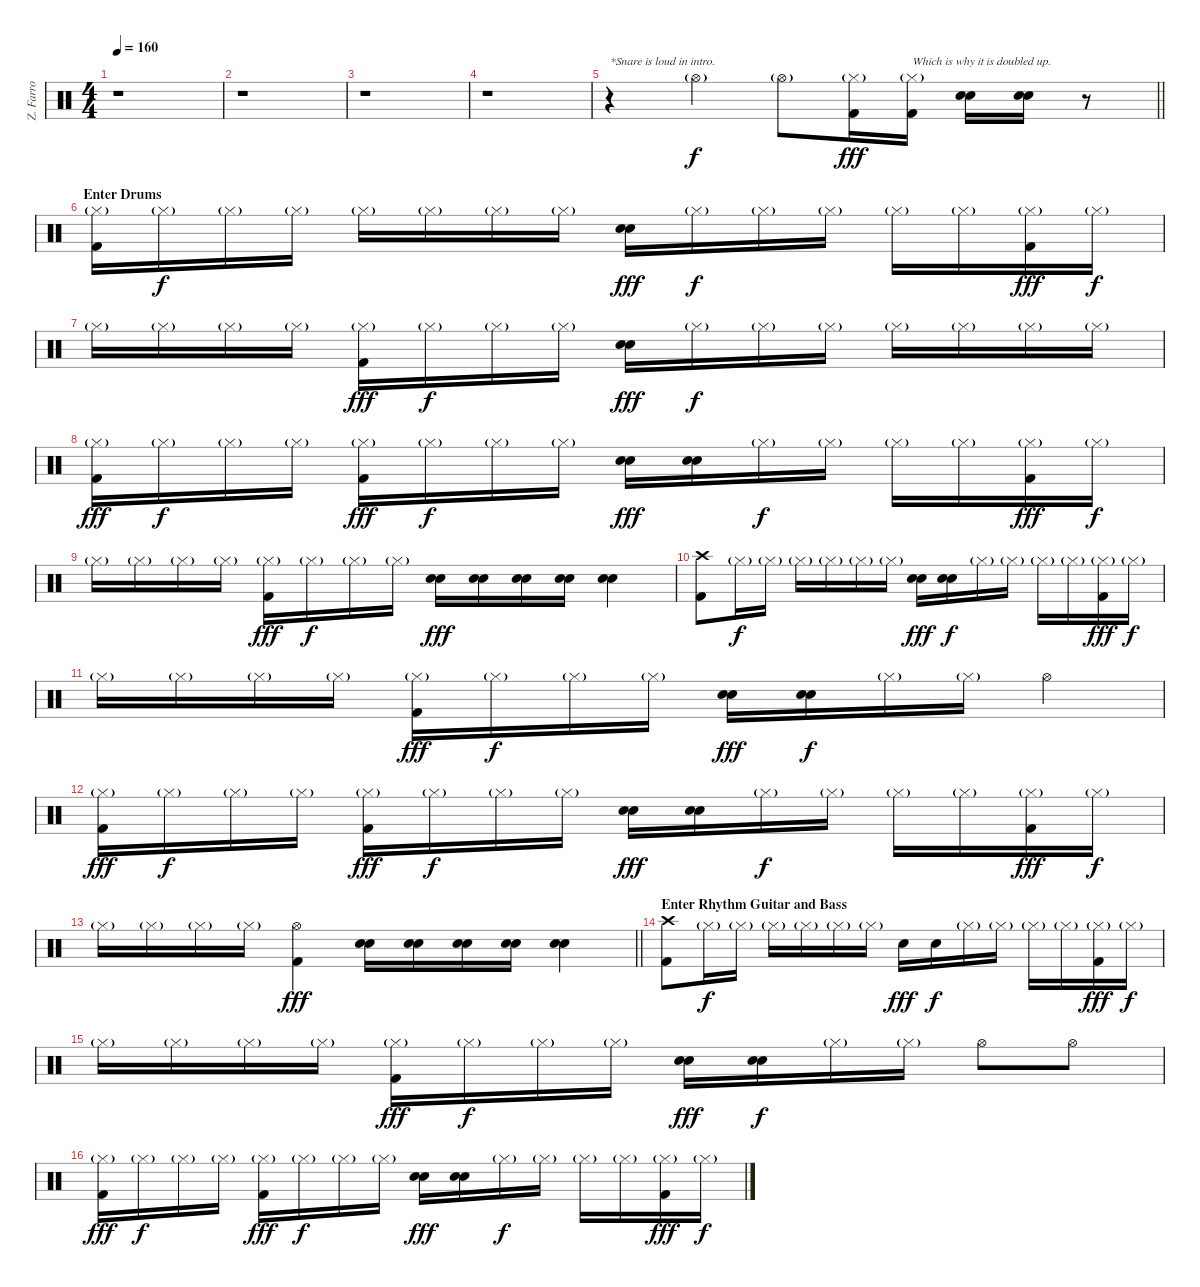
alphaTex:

\track ("Z. Farro" "Z. Farro") {instrument percussion}
\staff {score}
\articulation defaults
\ts (4 4)
\tempo 160
\clef neutral
\ks c
r.1{dy fff} |
r.1 |
r.1 |
r.1 |
\barLineRight lightlight
r.4{txt "*Snare is loud in intro."} "Hi-Hat (open)"{g}.4{dy f} "Hi-Hat (open)"{g}.8 ("Hi-Hat (closed)"{g} "Kick (hit) 2").16{dy fff} ("Hi-Hat (closed)"{g} "Kick (hit) 2").16{txt "Which is why it is doubled up."} ("Electric Snare (hit)" "Electric Snare (hit)").16 ("Electric Snare (hit)" "Electric Snare (hit)").16 r.8 |
\section ("" "Enter Drums")
("Hi-Hat (closed)"{g} "Kick (hit) 2").16 "Hi-Hat (closed)"{g}.16{dy f} "Hi-Hat (closed)"{g}.16 "Hi-Hat (closed)"{g}.16 "Hi-Hat (closed)"{g}.16 "Hi-Hat (closed)"{g}.16 "Hi-Hat (closed)"{g}.16 "Hi-Hat (closed)"{g}.16 ("Electric Snare (hit)" "Electric Snare (hit)").16{dy fff} "Hi-Hat (closed)"{g}.16{dy f} "Hi-Hat (closed)"{g}.16 "Hi-Hat (closed)"{g}.16 "Hi-Hat (closed)"{g}.16 "Hi-Hat (closed)"{g}.16 ("Hi-Hat (closed)"{g} "Kick (hit) 2").16{dy fff} "Hi-Hat (closed)"{g}.16{dy f} |
"Hi-Hat (closed)"{g}.16 "Hi-Hat (closed)"{g}.16 "Hi-Hat (closed)"{g}.16 "Hi-Hat (closed)"{g}.16 ("Hi-Hat (closed)"{g} "Kick (hit) 2").16{dy fff} "Hi-Hat (closed)"{g}.16{dy f} "Hi-Hat (closed)"{g}.16 "Hi-Hat (closed)"{g}.16 ("Electric Snare (hit)" "Electric Snare (hit)").16{dy fff} "Hi-Hat (closed)"{g}.16{dy f} "Hi-Hat (closed)"{g}.16 "Hi-Hat (closed)"{g}.16 "Hi-Hat (closed)"{g}.16 "Hi-Hat (closed)"{g}.16 "Hi-Hat (closed)"{g}.16 "Hi-Hat (closed)"{g}.16 |
("Hi-Hat (closed)"{g} "Kick (hit) 2").16{dy fff} "Hi-Hat (closed)"{g}.16{dy f} "Hi-Hat (closed)"{g}.16 "Hi-Hat (closed)"{g}.16 ("Hi-Hat (closed)"{g} "Kick (hit) 2").16{dy fff} "Hi-Hat (closed)"{g}.16{dy f} "Hi-Hat (closed)"{g}.16 "Hi-Hat (closed)"{g}.16 ("Electric Snare (hit)" "Electric Snare (hit)").16{dy fff} ("Electric Snare (hit)" "Electric Snare (hit)").16 "Hi-Hat (closed)"{g}.16{dy f} "Hi-Hat (closed)"{g}.16 "Hi-Hat (closed)"{g}.16 "Hi-Hat (closed)"{g}.16 ("Hi-Hat (closed)"{g} "Kick (hit) 2").16{dy fff} "Hi-Hat (closed)"{g}.16{dy f} |
"Hi-Hat (closed)"{g}.16 "Hi-Hat (closed)"{g}.16 "Hi-Hat (closed)"{g}.16 "Hi-Hat (closed)"{g}.16 ("Hi-Hat (closed)"{g} "Kick (hit) 2").16{dy fff} "Hi-Hat (closed)"{g}.16{dy f} "Hi-Hat (closed)"{g}.16 "Hi-Hat (closed)"{g}.16 ("Electric Snare (hit)" "Electric Snare (hit)").16{dy fff} ("Electric Snare (hit)" "Electric Snare (hit)").16 ("Electric Snare (hit)" "Electric Snare (hit)").16 ("Electric Snare (hit)" "Electric Snare (hit)").16 ("Electric Snare (hit)" "Electric Snare (hit)").4 |
("Crash high (hit)" "Kick (hit) 2").8 "Hi-Hat (closed)"{g}.16{dy f} "Hi-Hat (closed)"{g}.16 "Hi-Hat (closed)"{g}.16 "Hi-Hat (closed)"{g}.16 "Hi-Hat (closed)"{g}.16 "Hi-Hat (closed)"{g}.16 ("Electric Snare (hit)" "Electric Snare (hit)").16{dy fff} ("Electric Snare (hit)" "Electric Snare (hit)").16{dy f} "Hi-Hat (closed)"{g}.16 "Hi-Hat (closed)"{g}.16 "Hi-Hat (closed)"{g}.16 "Hi-Hat (closed)"{g}.16 ("Hi-Hat (closed)"{g} "Kick (hit) 2").16{dy fff} "Hi-Hat (closed)"{g}.16{dy f} |
"Hi-Hat (closed)"{g}.16 "Hi-Hat (closed)"{g}.16 "Hi-Hat (closed)"{g}.16 "Hi-Hat (closed)"{g}.16 ("Hi-Hat (closed)"{g} "Kick (hit) 2").16{dy fff} "Hi-Hat (closed)"{g}.16{dy f} "Hi-Hat (closed)"{g}.16 "Hi-Hat (closed)"{g}.16 ("Electric Snare (hit)" "Electric Snare (hit)").16{dy fff} ("Electric Snare (hit)" "Electric Snare (hit)").16{dy f} "Hi-Hat (closed)"{g}.16 "Hi-Hat (closed)"{g}.16 "Hi-Hat (open)".4 |
("Hi-Hat (closed)"{g} "Kick (hit) 2").16{dy fff} "Hi-Hat (closed)"{g}.16{dy f} "Hi-Hat (closed)"{g}.16 "Hi-Hat (closed)"{g}.16 ("Hi-Hat (closed)"{g} "Kick (hit) 2").16{dy fff} "Hi-Hat (closed)"{g}.16{dy f} "Hi-Hat (closed)"{g}.16 "Hi-Hat (closed)"{g}.16 ("Electric Snare (hit)" "Electric Snare (hit)").16{dy fff} ("Electric Snare (hit)" "Electric Snare (hit)").16 "Hi-Hat (closed)"{g}.16{dy f} "Hi-Hat (closed)"{g}.16 "Hi-Hat (closed)"{g}.16 "Hi-Hat (closed)"{g}.16 ("Hi-Hat (closed)"{g} "Kick (hit) 2").16{dy fff} "Hi-Hat (closed)"{g}.16{dy f} |
\barLineRight lightlight "Hi-Hat (closed)"{g}.16 "Hi-Hat (closed)"{g}.16 "Hi-Hat (closed)"{g}.16 "Hi-Hat (closed)"{g}.16
("Hi-Hat (open)" "Kick (hit) 2").4{dy fff} ("Electric Snare (hit)" "Electric Snare (hit)").16 ("Electric Snare (hit)" "Electric Snare (hit)").16 ("Electric Snare (hit)" "Electric Snare (hit)").16 ("Electric Snare (hit)" "Electric Snare (hit)").16 ("Electric Snare (hit)" "Electric Snare (hit)").4 |
\section ("" "Enter Rhythm Guitar and Bass")
("Crash high (hit)" "Kick (hit) 2").8 "Hi-Hat (closed)"{g}.16{dy f} "Hi-Hat (closed)"{g}.16 "Hi-Hat (closed)"{g}.16 "Hi-Hat (closed)"{g}.16 "Hi-Hat (closed)"{g}.16 "Hi-Hat (closed)"{g}.16 "Electric Snare (hit)".16{dy fff} "Electric Snare (hit)".16{dy f} "Hi-Hat (closed)"{g}.16 "Hi-Hat (closed)"{g}.16 "Hi-Hat (closed)"{g}.16 "Hi-Hat (closed)"{g}.16 ("Hi-Hat (closed)"{g} "Kick (hit) 2").16{dy fff} "Hi-Hat (closed)"{g}.16{dy f} |
"Hi-Hat (closed)"{g}.16 "Hi-Hat (closed)"{g}.16 "Hi-Hat (closed)"{g}.16 "Hi-Hat (closed)"{g}.16 ("Hi-Hat (closed)"{g} "Kick (hit) 2").16{dy fff} "Hi-Hat (closed)"{g}.16{dy f} "Hi-Hat (closed)"{g}.16 "Hi-Hat (closed)"{g}.16 ("Electric Snare (hit)" "Electric Snare (hit)").16{dy fff} ("Electric Snare (hit)" "Electric Snare (hit)").16{dy f} "Hi-Hat (closed)"{g}.16 "Hi-Hat (closed)"{g}.16 "Hi-Hat (open)".8 "Hi-Hat (open)".8 |
("Hi-Hat (closed)"{g} "Kick (hit) 2").16{dy fff} "Hi-Hat (closed)"{g}.16{dy f} "Hi-Hat (closed)"{g}.16 "Hi-Hat (closed)"{g}.16 ("Hi-Hat (closed)"{g} "Kick (hit) 2").16{dy fff} "Hi-Hat (closed)"{g}.16{dy f} "Hi-Hat (closed)"{g}.16 "Hi-Hat (closed)"{g}.16 ("Electric Snare (hit)" "Electric Snare (hit)").16{dy fff} ("Electric Snare (hit)" "Electric Snare (hit)").16 "Hi-Hat (closed)"{g}.16{dy f} "Hi-Hat (closed)"{g}.16 "Hi-Hat (closed)"{g}.16 "Hi-Hat (closed)"{g}.16 ("Hi-Hat (closed)"{g} "Kick (hit) 2").16{dy fff} "Hi-Hat (closed)"{g}.16{dy f}
